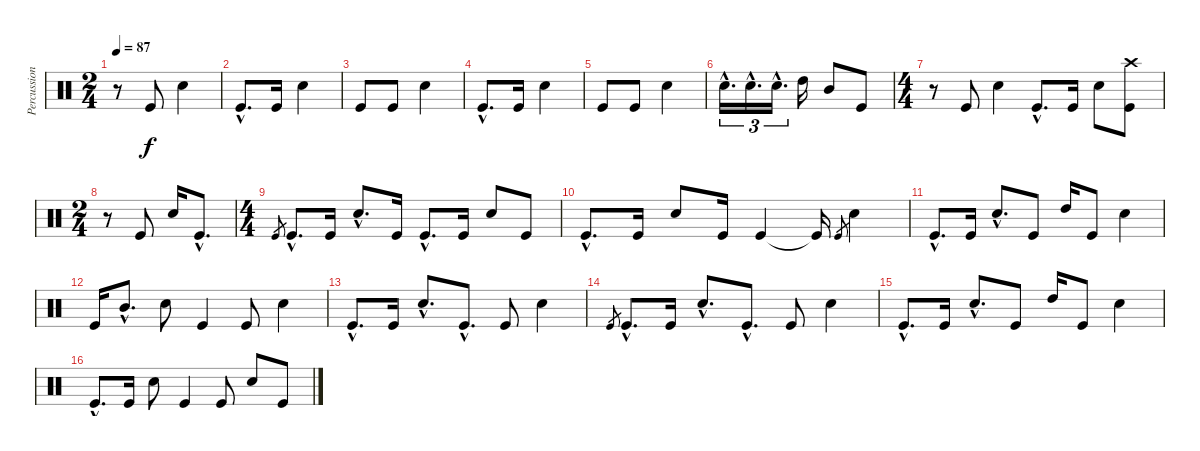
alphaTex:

\track ("Percussion" "Percussion") {instrument percussion}
\staff {score}
\articulation defaults
\ts (2 4)
\tempo 87
\clef neutral
\ks c
r.8{dy f} "Kick (hit)".8 "Electric Snare (hit)".4 |
"Kick (hit)"{hac}.8{d} "Kick (hit)".16 "Electric Snare (hit)".4 |
"Kick (hit)".8 "Kick (hit)".8 "Electric Snare (hit)".4 |
"Kick (hit)"{hac}.8{d} "Kick (hit)".16 "Electric Snare (hit)".4 |
"Kick (hit)".8 "Kick (hit)".8 "Electric Snare (hit)".4 |
"Electric Snare (hit)"{hac}.16{d tu (3 2)} "Electric Snare (hit)"{hac}.16{d tu (3 2)} "Electric Snare (hit)"{hac}.16{d tu (3 2)} "High Tom (hit)".16 "Mid Tom (hit)".8 "Kick (hit)".8 |
\ts (4 4)
r.8 "Kick (hit)".8 "Electric Snare (hit)".4 "Kick (hit)"{hac}.8{d} "Kick (hit)".16 "Electric Snare (hit)".8 ("Crash high (hit)" "Kick (hit)").8 |
\ts (2 4)
r.8 "Kick (hit)".8 "Electric Snare (hit)".16 "Kick (hit)"{hac}.8{d} |
\ts (4 4)
"Kick (hit)".8{gr} "Kick (hit)"{hac}.8{d} "Kick (hit)".16 "Electric Snare (hit)"{hac}.8{d} "Kick (hit)".16 "Kick (hit)"{hac}.8{d} "Kick (hit)".16 "Electric Snare (hit)".8 "Kick (hit)".8 |
"Kick (hit)"{hac}.8{d} "Kick (hit)".16 "Electric Snare (hit)".8 "Kick (hit)".16 "Kick (hit)".4 "Kick (hit)"{t}.16 "Kick (hit)".8{gr} "Electric Snare (hit)".4 |
"Kick (hit)"{hac}.8{d} "Kick (hit)".16 "Electric Snare (hit)"{hac}.8{d} "Kick (hit)".8 "High Tom (hit)".16 "Kick (hit)".8 "Electric Snare (hit)".4 |
"Kick (hit)".16 "Mid Tom (hit)"{hac}.8{d} "Electric Snare (hit)".8 "Kick (hit)".4 "Kick (hit)".8 "Electric Snare (hit)".4 |
"Kick (hit)"{hac}.8{d} "Kick (hit)".16 "Electric Snare (hit)"{hac}.8{d} "Kick (hit)"{hac}.8{d} "Kick (hit)".8 "Electric Snare (hit)".4 |
"Kick (hit)".8{gr} "Kick (hit)"{hac}.8{d} "Kick (hit)".16 "Electric Snare (hit)"{hac}.8{d} "Kick (hit)"{hac}.8{d} "Kick (hit)".8 "Electric Snare (hit)".4 |
"Kick (hit)"{hac}.8{d} "Kick (hit)".16 "Electric Snare (hit)"{hac}.8{d} "Kick (hit)".8 "High Tom (hit)".16 "Kick (hit)".8 "Electric Snare (hit)".4 |
"Kick (hit)"{hac}.8{d} "Kick (hit)".16 "Electric Snare (hit)".8 "Kick (hit)".4 "Kick (hit)".8 "Electric Snare (hit)".8 "Kick (hit)".8
